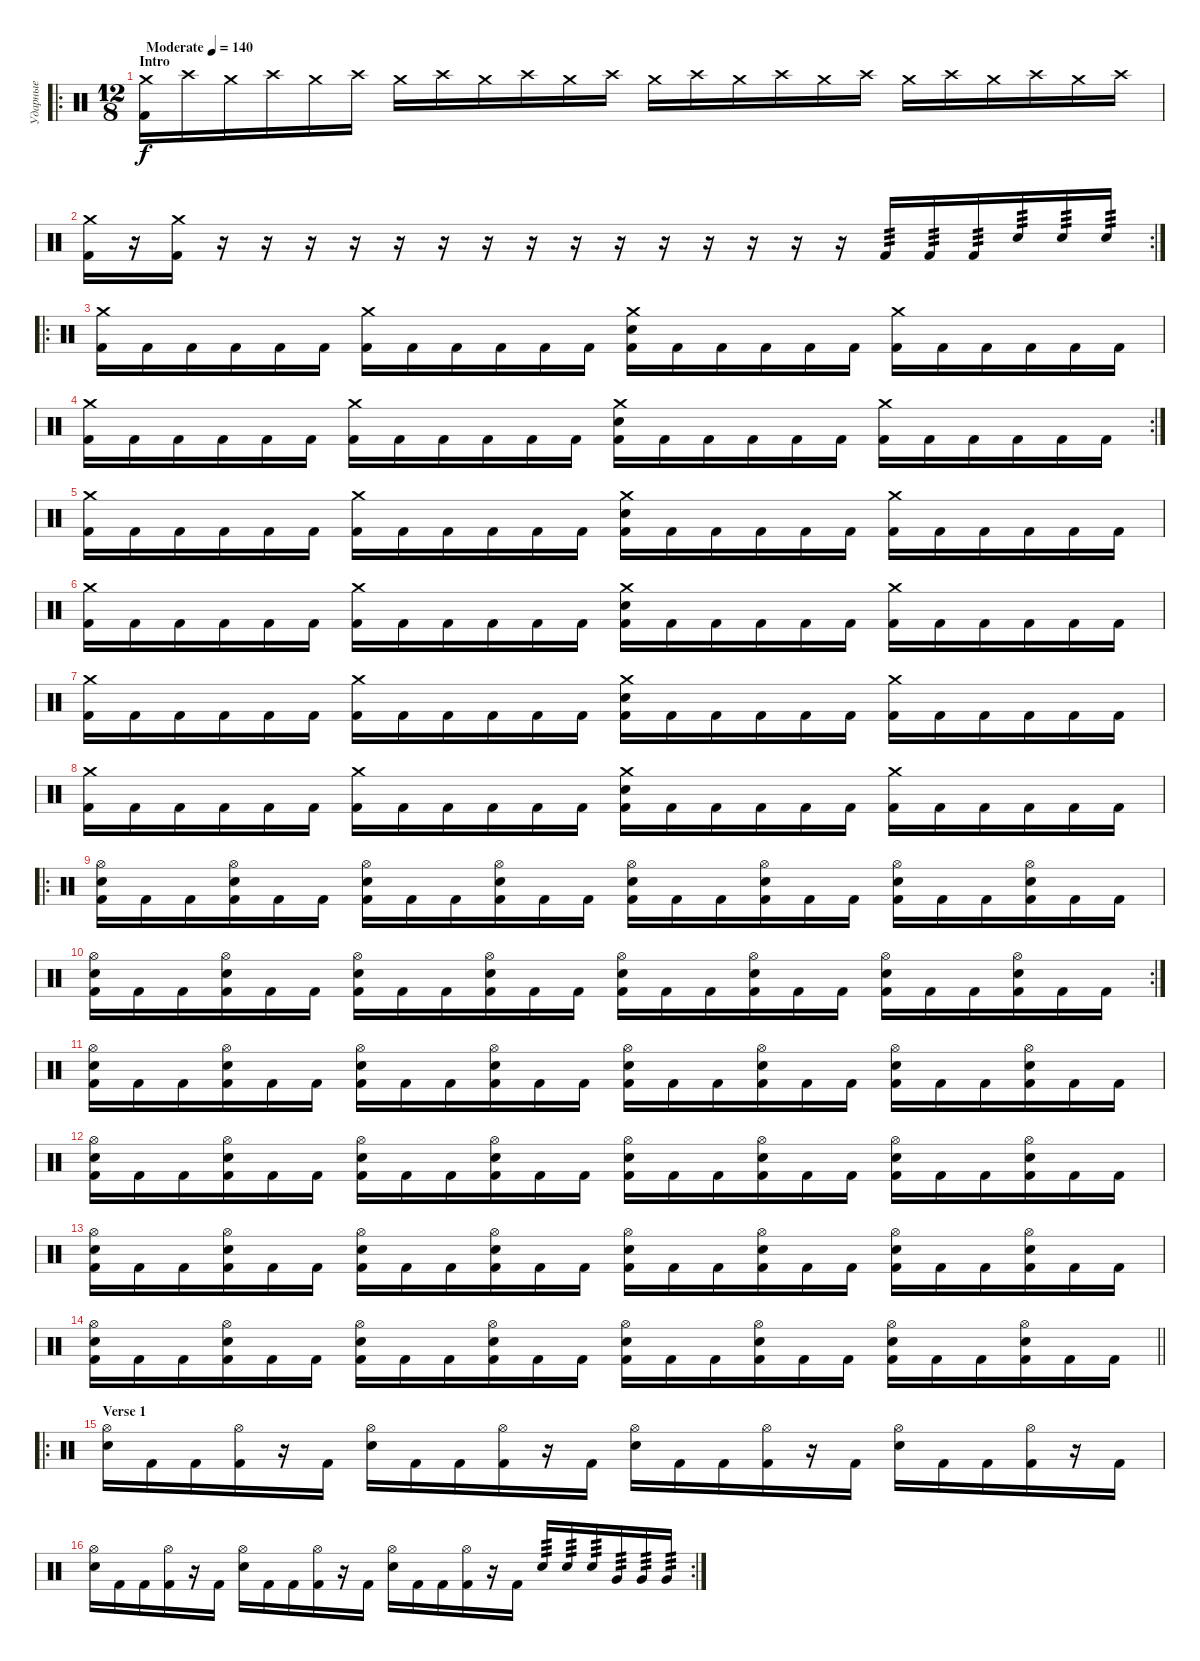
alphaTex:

\track ("Ударные" "Ударные") {instrument percussion}
\staff {score}
\articulation defaults
\ro
\ts (12 8)
\section ("" "Intro")
\tempo (140 "Moderate")
\clef neutral
\ks c
("Crash medium (hit)" "Kick (hit) 2").16{dy f} "Crash high (hit)".16 "Crash medium (hit)".16 "Crash high (hit)".16 "Crash medium (hit)".16 "Crash high (hit)".16 "Crash medium (hit)".16 "Crash high (hit)".16 "Crash medium (hit)".16 "Crash high (hit)".16 "Crash medium (hit)".16 "Crash high (hit)".16 "Crash medium (hit)".16 "Crash high (hit)".16 "Crash medium (hit)".16 "Crash high (hit)".16 "Crash medium (hit)".16 "Crash high (hit)".16 "Crash medium (hit)".16 "Crash high (hit)".16 "Crash medium (hit)".16 "Crash high (hit)".16 "Crash medium (hit)".16 "Crash high (hit)".16 |
\rc 2
("Crash medium (hit)" "Kick (hit) 2").16 r.16 ("Crash medium (hit)" "Kick (hit) 2").16 r.16 r.16 r.16 r.16 r.16 r.16 r.16 r.16 r.16 r.16 r.16 r.16 r.16 r.16 r.16 "Kick (hit) 2".16{tp 3} "Kick (hit) 2".16{tp 3} "Kick (hit) 2".16{tp 3} "Electric Snare (hit)".16{tp 3} "Electric Snare (hit)".16{tp 3} "Electric Snare (hit)".16{tp 3} |
\ro
("Crash medium (hit)" "Kick (hit) 2").16 "Kick (hit) 2".16 "Kick (hit) 2".16 "Kick (hit) 2".16 "Kick (hit) 2".16 "Kick (hit) 2".16 ("Crash medium (hit)" "Kick (hit) 2").16 "Kick (hit) 2".16 "Kick (hit) 2".16 "Kick (hit) 2".16 "Kick (hit) 2".16 "Kick (hit) 2".16 ("Crash medium (hit)" "Electric Snare (hit)" "Kick (hit) 2").16 "Kick (hit) 2".16 "Kick (hit) 2".16 "Kick (hit) 2".16 "Kick (hit) 2".16 "Kick (hit) 2".16 ("Crash medium (hit)" "Kick (hit) 2").16 "Kick (hit) 2".16 "Kick (hit) 2".16 "Kick (hit) 2".16 "Kick (hit) 2".16 "Kick (hit) 2".16 |
\rc 2
("Crash medium (hit)" "Kick (hit) 2").16 "Kick (hit) 2".16 "Kick (hit) 2".16 "Kick (hit) 2".16 "Kick (hit) 2".16 "Kick (hit) 2".16 ("Crash medium (hit)" "Kick (hit) 2").16 "Kick (hit) 2".16 "Kick (hit) 2".16 "Kick (hit) 2".16 "Kick (hit) 2".16 "Kick (hit) 2".16 ("Crash medium (hit)" "Electric Snare (hit)" "Kick (hit) 2").16 "Kick (hit) 2".16 "Kick (hit) 2".16 "Kick (hit) 2".16 "Kick (hit) 2".16 "Kick (hit) 2".16 ("Crash medium (hit)" "Kick (hit) 2").16 "Kick (hit) 2".16 "Kick (hit) 2".16 "Kick (hit) 2".16 "Kick (hit) 2".16 "Kick (hit) 2".16 |
("Crash medium (hit)" "Kick (hit) 2").16 "Kick (hit) 2".16 "Kick (hit) 2".16 "Kick (hit) 2".16 "Kick (hit) 2".16 "Kick (hit) 2".16 ("Crash medium (hit)" "Kick (hit) 2").16 "Kick (hit) 2".16 "Kick (hit) 2".16 "Kick (hit) 2".16 "Kick (hit) 2".16 "Kick (hit) 2".16 ("Crash medium (hit)" "Electric Snare (hit)" "Kick (hit) 2").16 "Kick (hit) 2".16 "Kick (hit) 2".16 "Kick (hit) 2".16 "Kick (hit) 2".16 "Kick (hit) 2".16 ("Crash medium (hit)" "Kick (hit) 2").16 "Kick (hit) 2".16 "Kick (hit) 2".16 "Kick (hit) 2".16 "Kick (hit) 2".16 "Kick (hit) 2".16 |
("Crash medium (hit)" "Kick (hit) 2").16 "Kick (hit) 2".16 "Kick (hit) 2".16 "Kick (hit) 2".16 "Kick (hit) 2".16 "Kick (hit) 2".16 ("Crash medium (hit)" "Kick (hit) 2").16 "Kick (hit) 2".16 "Kick (hit) 2".16 "Kick (hit) 2".16 "Kick (hit) 2".16 "Kick (hit) 2".16 ("Crash medium (hit)" "Electric Snare (hit)" "Kick (hit) 2").16 "Kick (hit) 2".16 "Kick (hit) 2".16 "Kick (hit) 2".16 "Kick (hit) 2".16 "Kick (hit) 2".16 ("Crash medium (hit)" "Kick (hit) 2").16 "Kick (hit) 2".16 "Kick (hit) 2".16 "Kick (hit) 2".16 "Kick (hit) 2".16 "Kick (hit) 2".16 |
("Crash medium (hit)" "Kick (hit) 2").16 "Kick (hit) 2".16 "Kick (hit) 2".16 "Kick (hit) 2".16 "Kick (hit) 2".16 "Kick (hit) 2".16 ("Crash medium (hit)" "Kick (hit) 2").16 "Kick (hit) 2".16 "Kick (hit) 2".16 "Kick (hit) 2".16 "Kick (hit) 2".16 "Kick (hit) 2".16 ("Crash medium (hit)" "Electric Snare (hit)" "Kick (hit) 2").16 "Kick (hit) 2".16 "Kick (hit) 2".16 "Kick (hit) 2".16 "Kick (hit) 2".16 "Kick (hit) 2".16 ("Crash medium (hit)" "Kick (hit) 2").16 "Kick (hit) 2".16 "Kick (hit) 2".16 "Kick (hit) 2".16 "Kick (hit) 2".16 "Kick (hit) 2".16 |
("Crash medium (hit)" "Kick (hit) 2").16 "Kick (hit) 2".16 "Kick (hit) 2".16 "Kick (hit) 2".16 "Kick (hit) 2".16 "Kick (hit) 2".16 ("Crash medium (hit)" "Kick (hit) 2").16 "Kick (hit) 2".16 "Kick (hit) 2".16 "Kick (hit) 2".16 "Kick (hit) 2".16 "Kick (hit) 2".16 ("Crash medium (hit)" "Electric Snare (hit)" "Kick (hit) 2").16 "Kick (hit) 2".16 "Kick (hit) 2".16 "Kick (hit) 2".16 "Kick (hit) 2".16 "Kick (hit) 2".16 ("Crash medium (hit)" "Kick (hit) 2").16 "Kick (hit) 2".16 "Kick (hit) 2".16 "Kick (hit) 2".16 "Kick (hit) 2".16 "Kick (hit) 2".16 |
\ro
("Hi-Hat (open)" "Electric Snare (hit)" "Kick (hit) 2").16 "Kick (hit) 2".16 "Kick (hit) 2".16 ("Hi-Hat (open)" "Electric Snare (hit)" "Kick (hit) 2").16 "Kick (hit) 2".16 "Kick (hit) 2".16 ("Hi-Hat (open)" "Electric Snare (hit)" "Kick (hit) 2").16 "Kick (hit) 2".16 "Kick (hit) 2".16 ("Hi-Hat (open)" "Electric Snare (hit)" "Kick (hit) 2").16 "Kick (hit) 2".16 "Kick (hit) 2".16 ("Hi-Hat (open)" "Electric Snare (hit)" "Kick (hit) 2").16 "Kick (hit) 2".16 "Kick (hit) 2".16 ("Hi-Hat (open)" "Electric Snare (hit)" "Kick (hit) 2").16 "Kick (hit) 2".16 "Kick (hit) 2".16 ("Hi-Hat (open)" "Electric Snare (hit)" "Kick (hit) 2").16 "Kick (hit) 2".16 "Kick (hit) 2".16 ("Hi-Hat (open)" "Electric Snare (hit)" "Kick (hit) 2").16 "Kick (hit) 2".16 "Kick (hit) 2".16 |
\rc 2
("Hi-Hat (open)" "Electric Snare (hit)" "Kick (hit) 2").16 "Kick (hit) 2".16 "Kick (hit) 2".16 ("Hi-Hat (open)" "Electric Snare (hit)" "Kick (hit) 2").16 "Kick (hit) 2".16 "Kick (hit) 2".16 ("Hi-Hat (open)" "Electric Snare (hit)" "Kick (hit) 2").16 "Kick (hit) 2".16 "Kick (hit) 2".16 ("Hi-Hat (open)" "Electric Snare (hit)" "Kick (hit) 2").16 "Kick (hit) 2".16 "Kick (hit) 2".16 ("Hi-Hat (open)" "Electric Snare (hit)" "Kick (hit) 2").16 "Kick (hit) 2".16 "Kick (hit) 2".16 ("Hi-Hat (open)" "Electric Snare (hit)" "Kick (hit) 2").16 "Kick (hit) 2".16 "Kick (hit) 2".16 ("Hi-Hat (open)" "Electric Snare (hit)" "Kick (hit) 2").16 "Kick (hit) 2".16 "Kick (hit) 2".16 ("Hi-Hat (open)" "Electric Snare (hit)" "Kick (hit) 2").16 "Kick (hit) 2".16 "Kick (hit) 2".16 |
("Hi-Hat (open)" "Electric Snare (hit)" "Kick (hit) 2").16 "Kick (hit) 2".16 "Kick (hit) 2".16 ("Hi-Hat (open)" "Electric Snare (hit)" "Kick (hit) 2").16 "Kick (hit) 2".16 "Kick (hit) 2".16 ("Hi-Hat (open)" "Electric Snare (hit)" "Kick (hit) 2").16 "Kick (hit) 2".16 "Kick (hit) 2".16 ("Hi-Hat (open)" "Electric Snare (hit)" "Kick (hit) 2").16 "Kick (hit) 2".16 "Kick (hit) 2".16 ("Hi-Hat (open)" "Electric Snare (hit)" "Kick (hit) 2").16 "Kick (hit) 2".16 "Kick (hit) 2".16 ("Hi-Hat (open)" "Electric Snare (hit)" "Kick (hit) 2").16 "Kick (hit) 2".16 "Kick (hit) 2".16 ("Hi-Hat (open)" "Electric Snare (hit)" "Kick (hit) 2").16 "Kick (hit) 2".16 "Kick (hit) 2".16 ("Hi-Hat (open)" "Electric Snare (hit)" "Kick (hit) 2").16 "Kick (hit) 2".16 "Kick (hit) 2".16 |
("Hi-Hat (open)" "Electric Snare (hit)" "Kick (hit) 2").16 "Kick (hit) 2".16 "Kick (hit) 2".16 ("Hi-Hat (open)" "Electric Snare (hit)" "Kick (hit) 2").16 "Kick (hit) 2".16 "Kick (hit) 2".16 ("Hi-Hat (open)" "Electric Snare (hit)" "Kick (hit) 2").16 "Kick (hit) 2".16 "Kick (hit) 2".16 ("Hi-Hat (open)" "Electric Snare (hit)" "Kick (hit) 2").16 "Kick (hit) 2".16 "Kick (hit) 2".16 ("Hi-Hat (open)" "Electric Snare (hit)" "Kick (hit) 2").16 "Kick (hit) 2".16 "Kick (hit) 2".16 ("Hi-Hat (open)" "Electric Snare (hit)" "Kick (hit) 2").16 "Kick (hit) 2".16 "Kick (hit) 2".16 ("Hi-Hat (open)" "Electric Snare (hit)" "Kick (hit) 2").16 "Kick (hit) 2".16 "Kick (hit) 2".16 ("Hi-Hat (open)" "Electric Snare (hit)" "Kick (hit) 2").16 "Kick (hit) 2".16 "Kick (hit) 2".16 |
("Hi-Hat (open)" "Electric Snare (hit)" "Kick (hit) 2").16 "Kick (hit) 2".16 "Kick (hit) 2".16 ("Hi-Hat (open)" "Electric Snare (hit)" "Kick (hit) 2").16 "Kick (hit) 2".16 "Kick (hit) 2".16 ("Hi-Hat (open)" "Electric Snare (hit)" "Kick (hit) 2").16 "Kick (hit) 2".16 "Kick (hit) 2".16 ("Hi-Hat (open)" "Electric Snare (hit)" "Kick (hit) 2").16 "Kick (hit) 2".16 "Kick (hit) 2".16 ("Hi-Hat (open)" "Electric Snare (hit)" "Kick (hit) 2").16 "Kick (hit) 2".16 "Kick (hit) 2".16 ("Hi-Hat (open)" "Electric Snare (hit)" "Kick (hit) 2").16 "Kick (hit) 2".16 "Kick (hit) 2".16 ("Hi-Hat (open)" "Electric Snare (hit)" "Kick (hit) 2").16 "Kick (hit) 2".16 "Kick (hit) 2".16 ("Hi-Hat (open)" "Electric Snare (hit)" "Kick (hit) 2").16 "Kick (hit) 2".16 "Kick (hit) 2".16 |
\barLineRight lightlight
("Hi-Hat (open)" "Electric Snare (hit)" "Kick (hit) 2").16 "Kick (hit) 2".16 "Kick (hit) 2".16 ("Hi-Hat (open)" "Electric Snare (hit)" "Kick (hit) 2").16 "Kick (hit) 2".16 "Kick (hit) 2".16 ("Hi-Hat (open)" "Electric Snare (hit)" "Kick (hit) 2").16 "Kick (hit) 2".16 "Kick (hit) 2".16 ("Hi-Hat (open)" "Electric Snare (hit)" "Kick (hit) 2").16 "Kick (hit) 2".16 "Kick (hit) 2".16 ("Hi-Hat (open)" "Electric Snare (hit)" "Kick (hit) 2").16 "Kick (hit) 2".16 "Kick (hit) 2".16 ("Hi-Hat (open)" "Electric Snare (hit)" "Kick (hit) 2").16 "Kick (hit) 2".16 "Kick (hit) 2".16 ("Hi-Hat (open)" "Electric Snare (hit)" "Kick (hit) 2").16 "Kick (hit) 2".16 "Kick (hit) 2".16 ("Hi-Hat (open)" "Electric Snare (hit)" "Kick (hit) 2").16 "Kick (hit) 2".16 "Kick (hit) 2".16 |
\ro
\section ("" "Verse 1")
("Hi-Hat (open)" "Electric Snare (hit)").16 "Kick (hit) 2".16 "Kick (hit) 2".16 ("Hi-Hat (open)" "Kick (hit) 2").16 r.16 "Kick (hit) 2".16 ("Hi-Hat (open)" "Electric Snare (hit)").16 "Kick (hit) 2".16 "Kick (hit) 2".16 ("Hi-Hat (open)" "Kick (hit) 2").16 r.16 "Kick (hit) 2".16 ("Hi-Hat (open)" "Electric Snare (hit)").16 "Kick (hit) 2".16 "Kick (hit) 2".16 ("Hi-Hat (open)" "Kick (hit) 2").16 r.16 "Kick (hit) 2".16 ("Hi-Hat (open)" "Electric Snare (hit)").16 "Kick (hit) 2".16 "Kick (hit) 2".16 ("Hi-Hat (open)" "Kick (hit) 2").16 r.16 "Kick (hit) 2".16 |
\rc 2
("Hi-Hat (open)" "Electric Snare (hit)").16 "Kick (hit) 2".16 "Kick (hit) 2".16 ("Hi-Hat (open)" "Kick (hit) 2").16 r.16 "Kick (hit) 2".16 ("Hi-Hat (open)" "Electric Snare (hit)").16 "Kick (hit) 2".16 "Kick (hit) 2".16 ("Hi-Hat (open)" "Kick (hit) 2").16 r.16 "Kick (hit) 2".16 ("Hi-Hat (open)" "Electric Snare (hit)").16 "Kick (hit) 2".16 "Kick (hit) 2".16 ("Hi-Hat (open)" "Kick (hit) 2").16 r.16 "Kick (hit) 2".16 "Electric Snare (hit)".16{tp 3} "Electric Snare (hit)".16{tp 3} "Electric Snare (hit)".16{tp 3} "Very Low Tom (hit)".16{tp 3} "Very Low Tom (hit)".16{tp 3} "Very Low Tom (hit)".16{tp 3}
